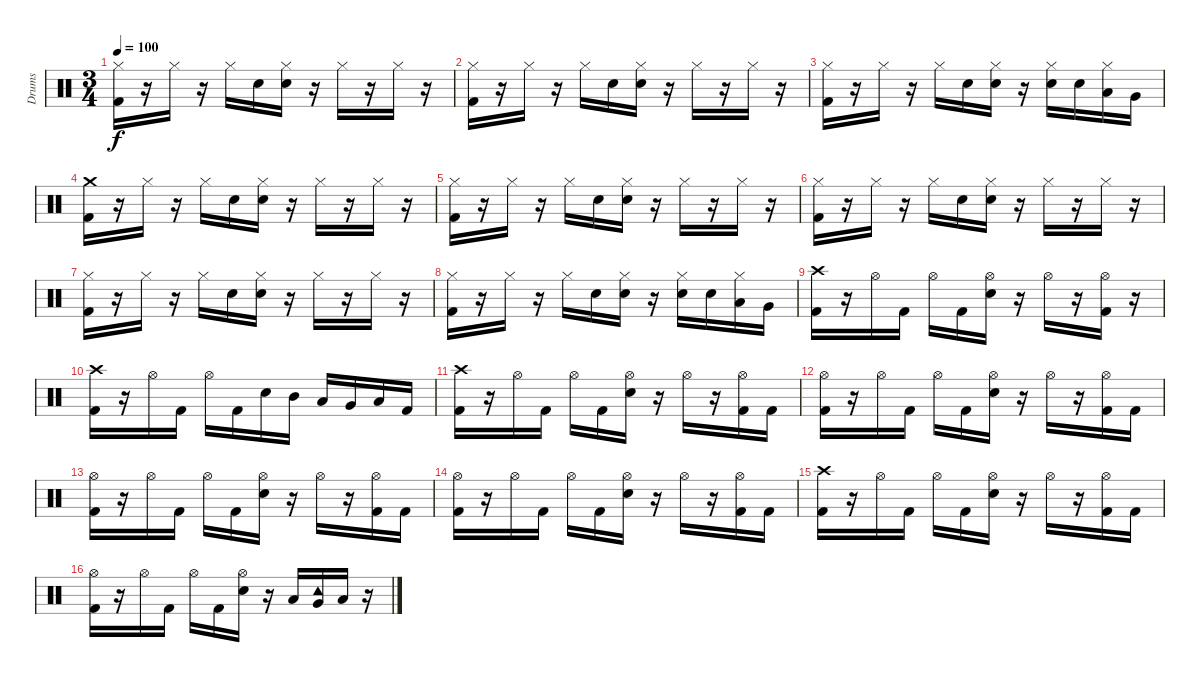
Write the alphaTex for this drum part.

\track ("Drums" "Drums") {instrument percussion}
\staff {score}
\articulation defaults
\ts (3 4)
\tempo 100
\clef neutral
\ks c
("Hi-Hat (closed)" "Kick (hit) 2").16{dy f} r.16 "Hi-Hat (closed)".16 r.16 "Hi-Hat (closed)".16 "Snare (hit) 2".16 ("Hi-Hat (closed)" "Snare (hit) 2").16 r.16 "Hi-Hat (closed)".16 r.16 "Hi-Hat (closed)".16 r.16 |
("Hi-Hat (closed)" "Kick (hit) 2").16 r.16 "Hi-Hat (closed)".16 r.16 "Hi-Hat (closed)".16 "Snare (hit) 2".16 ("Hi-Hat (closed)" "Snare (hit) 2").16 r.16 "Hi-Hat (closed)".16 r.16 "Hi-Hat (closed)".16 r.16 |
("Hi-Hat (closed)" "Kick (hit) 2").16 r.16 "Hi-Hat (closed)".16 r.16 "Hi-Hat (closed)".16 "Snare (hit) 2".16 ("Hi-Hat (closed)" "Snare (hit) 2").16 r.16 ("Hi-Hat (closed)" "Snare (hit) 2").16 "Snare (hit) 2".16 ("Hi-Hat (closed)" "Low Tom (hit)").16 "Very Low Tom (hit)".16 |
("Crash medium (hit)" "Kick (hit) 2").16 r.16 "Hi-Hat (closed)".16 r.16 "Hi-Hat (closed)".16 "Snare (hit) 2".16 ("Hi-Hat (closed)" "Snare (hit) 2").16 r.16 "Hi-Hat (closed)".16 r.16 "Hi-Hat (closed)".16 r.16 |
("Hi-Hat (closed)" "Kick (hit) 2").16 r.16 "Hi-Hat (closed)".16 r.16 "Hi-Hat (closed)".16 "Snare (hit) 2".16 ("Hi-Hat (closed)" "Snare (hit) 2").16 r.16 "Hi-Hat (closed)".16 r.16 "Hi-Hat (closed)".16 r.16 |
("Hi-Hat (closed)" "Kick (hit) 2").16 r.16 "Hi-Hat (closed)".16 r.16 "Hi-Hat (closed)".16 "Snare (hit) 2".16 ("Hi-Hat (closed)" "Snare (hit) 2").16 r.16 "Hi-Hat (closed)".16 r.16 "Hi-Hat (closed)".16 r.16 |
("Hi-Hat (closed)" "Kick (hit) 2").16 r.16 "Hi-Hat (closed)".16 r.16 "Hi-Hat (closed)".16 "Snare (hit) 2".16 ("Hi-Hat (closed)" "Snare (hit) 2").16 r.16 "Hi-Hat (closed)".16 r.16 "Hi-Hat (closed)".16 r.16 |
("Hi-Hat (closed)" "Kick (hit) 2").16 r.16 "Hi-Hat (closed)".16 r.16 "Hi-Hat (closed)".16 "Snare (hit) 2".16 ("Hi-Hat (closed)" "Snare (hit) 2").16 r.16 ("Hi-Hat (closed)" "Snare (hit) 2").16 "Snare (hit) 2".16 ("Hi-Hat (closed)" "Low Tom (hit)").16 "Very Low Tom (hit)".16 |
("Crash high (hit)" "Kick (hit) 2").16 r.16 "Hi-Hat (open)".16 "Kick (hit) 2".16 "Hi-Hat (open)".16 "Kick (hit) 2".16 ("Hi-Hat (open)" "Snare (hit) 2").16 r.16 "Hi-Hat (open)".16 r.16 ("Hi-Hat (open)" "Kick (hit) 2").16 r.16 |
("Crash high (hit)" "Kick (hit) 2").16 r.16 "Hi-Hat (open)".16 "Kick (hit) 2".16 "Hi-Hat (open)".16 "Kick (hit) 2".16 "Snare (hit) 2".16 "Mid Tom (hit)".16 "Low Tom (hit)".16 "Very Low Tom (hit)".16 "Low Floor Tom (hit)".16 "Kick (hit) 2".16 |
("Crash high (hit)" "Kick (hit) 2").16 r.16 "Hi-Hat (open)".16 "Kick (hit) 2".16 "Hi-Hat (open)".16 "Kick (hit) 2".16 ("Hi-Hat (open)" "Snare (hit) 2").16 r.16 "Hi-Hat (open)".16 r.16 ("Hi-Hat (open)" "Kick (hit) 2").16 "Kick (hit) 2".16 |
("Hi-Hat (open)" "Kick (hit) 2").16 r.16 "Hi-Hat (open)".16 "Kick (hit) 2".16 "Hi-Hat (open)".16 "Kick (hit) 2".16 ("Hi-Hat (open)" "Snare (hit) 2").16 r.16 "Hi-Hat (open)".16 r.16 ("Hi-Hat (open)" "Kick (hit) 2").16 "Kick (hit) 2".16 |
("Hi-Hat (open)" "Kick (hit) 2").16 r.16 "Hi-Hat (open)".16 "Kick (hit) 2".16 "Hi-Hat (open)".16 "Kick (hit) 2".16 ("Hi-Hat (open)" "Snare (hit) 2").16 r.16 "Hi-Hat (open)".16 r.16 ("Hi-Hat (open)" "Kick (hit) 2").16 "Kick (hit) 2".16 |
("Hi-Hat (open)" "Kick (hit) 2").16 r.16 "Hi-Hat (open)".16 "Kick (hit) 2".16 "Hi-Hat (open)".16 "Kick (hit) 2".16 ("Hi-Hat (open)" "Snare (hit) 2").16 r.16 "Hi-Hat (open)".16 r.16 ("Hi-Hat (open)" "Kick (hit) 2").16 "Kick (hit) 2".16 |
("Crash high (hit)" "Kick (hit) 2").16 r.16 "Hi-Hat (open)".16 "Kick (hit) 2".16 "Hi-Hat (open)".16 "Kick (hit) 2".16 ("Hi-Hat (open)" "Snare (hit) 2").16 r.16 "Hi-Hat (open)".16 r.16 ("Hi-Hat (open)" "Kick (hit) 2").16 "Kick (hit) 2".16 |
("Hi-Hat (open)" "Kick (hit) 2").16 r.16 "Hi-Hat (open)".16 "Kick (hit) 2".16 "Hi-Hat (open)".16 "Kick (hit) 2".16 ("Hi-Hat (open)" "Snare (hit) 2").16 r.16 "Low Tom (hit)".16 ("Tambourine (hit)" "Very Low Tom (hit)").16 "Low Floor Tom (hit)".16 r.16
